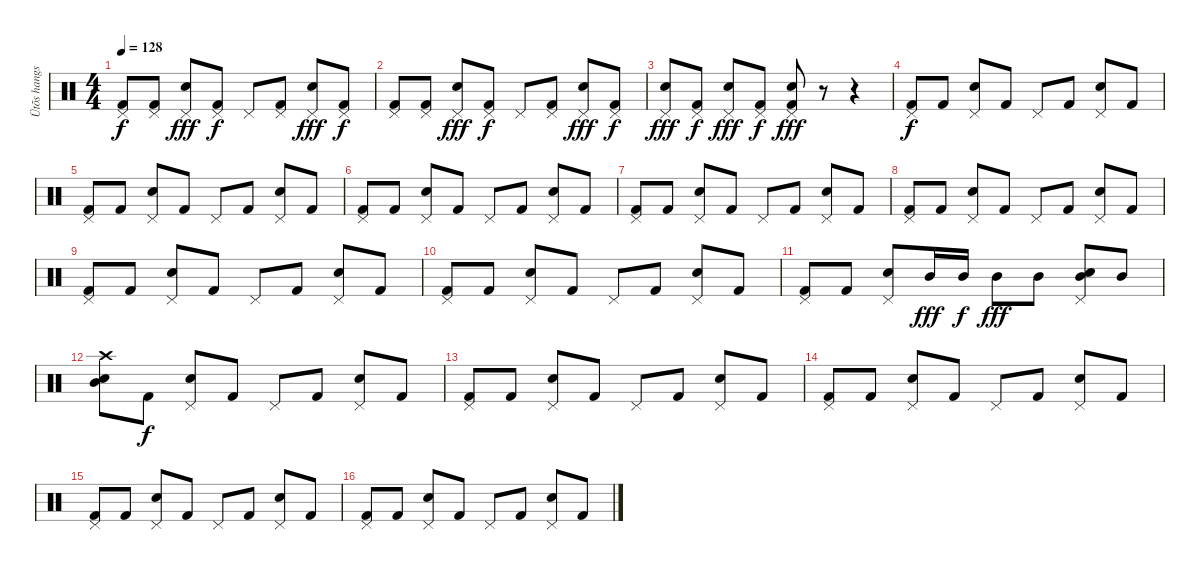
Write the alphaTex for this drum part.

\track ("Ütõs hangszer" "Ütõs hangs") {instrument percussion}
\staff {score}
\articulation defaults
\ts (4 4)
\tempo 128
\clef neutral
\ks c
("Kick (hit) 2" "Pedal Hi-Hat (hit)").8{dy f} ("Kick (hit) 2" "Pedal Hi-Hat (hit)").8 ("Electric Snare (hit)" "Pedal Hi-Hat (hit)").8{dy fff} ("Kick (hit) 2" "Pedal Hi-Hat (hit)").8{dy f} "Pedal Hi-Hat (hit)".8 ("Kick (hit) 2" "Pedal Hi-Hat (hit)").8 ("Electric Snare (hit)" "Pedal Hi-Hat (hit)").8{dy fff} ("Kick (hit) 2" "Pedal Hi-Hat (hit)").8{dy f} |
("Kick (hit) 2" "Pedal Hi-Hat (hit)").8 ("Kick (hit) 2" "Pedal Hi-Hat (hit)").8 ("Electric Snare (hit)" "Pedal Hi-Hat (hit)").8{dy fff} ("Kick (hit) 2" "Pedal Hi-Hat (hit)").8{dy f} "Pedal Hi-Hat (hit)".8 ("Kick (hit) 2" "Pedal Hi-Hat (hit)").8 ("Electric Snare (hit)" "Pedal Hi-Hat (hit)").8{dy fff} ("Kick (hit) 2" "Pedal Hi-Hat (hit)").8{dy f} |
("Electric Snare (hit)" "Pedal Hi-Hat (hit)").8{dy fff} ("Kick (hit) 2" "Pedal Hi-Hat (hit)").8{dy f} ("Electric Snare (hit)" "Pedal Hi-Hat (hit)").8{dy fff} ("Kick (hit) 2" "Pedal Hi-Hat (hit)").8{dy f} ("Electric Snare (hit)" "Kick (hit) 2" "Pedal Hi-Hat (hit)").8{dy fff} r.8 r.4 |
("Kick (hit) 2" "Pedal Hi-Hat (hit)").8{dy f} "Kick (hit) 2".8 ("Electric Snare (hit)" "Pedal Hi-Hat (hit)").8 "Kick (hit) 2".8 "Pedal Hi-Hat (hit)".8 "Kick (hit) 2".8 ("Electric Snare (hit)" "Pedal Hi-Hat (hit)").8 "Kick (hit) 2".8 |
("Kick (hit) 2" "Pedal Hi-Hat (hit)").8 "Kick (hit) 2".8 ("Electric Snare (hit)" "Pedal Hi-Hat (hit)").8 "Kick (hit) 2".8 "Pedal Hi-Hat (hit)".8 "Kick (hit) 2".8 ("Electric Snare (hit)" "Pedal Hi-Hat (hit)").8 "Kick (hit) 2".8 |
("Kick (hit) 2" "Pedal Hi-Hat (hit)").8 "Kick (hit) 2".8 ("Electric Snare (hit)" "Pedal Hi-Hat (hit)").8 "Kick (hit) 2".8 "Pedal Hi-Hat (hit)".8 "Kick (hit) 2".8 ("Electric Snare (hit)" "Pedal Hi-Hat (hit)").8 "Kick (hit) 2".8 |
("Kick (hit) 2" "Pedal Hi-Hat (hit)").8 "Kick (hit) 2".8 ("Electric Snare (hit)" "Pedal Hi-Hat (hit)").8 "Kick (hit) 2".8 "Pedal Hi-Hat (hit)".8 "Kick (hit) 2".8 ("Electric Snare (hit)" "Pedal Hi-Hat (hit)").8 "Kick (hit) 2".8 |
("Kick (hit) 2" "Pedal Hi-Hat (hit)").8 "Kick (hit) 2".8 ("Electric Snare (hit)" "Pedal Hi-Hat (hit)").8 "Kick (hit) 2".8 "Pedal Hi-Hat (hit)".8 "Kick (hit) 2".8 ("Electric Snare (hit)" "Pedal Hi-Hat (hit)").8 "Kick (hit) 2".8 |
("Kick (hit) 2" "Pedal Hi-Hat (hit)").8 "Kick (hit) 2".8 ("Electric Snare (hit)" "Pedal Hi-Hat (hit)").8 "Kick (hit) 2".8 "Pedal Hi-Hat (hit)".8 "Kick (hit) 2".8 ("Electric Snare (hit)" "Pedal Hi-Hat (hit)").8 "Kick (hit) 2".8 |
("Kick (hit) 2" "Pedal Hi-Hat (hit)").8 "Kick (hit) 2".8 ("Electric Snare (hit)" "Pedal Hi-Hat (hit)").8 "Kick (hit) 2".8 "Pedal Hi-Hat (hit)".8 "Kick (hit) 2".8 ("Electric Snare (hit)" "Pedal Hi-Hat (hit)").8 "Kick (hit) 2".8 |
("Kick (hit) 2" "Pedal Hi-Hat (hit)").8 "Kick (hit) 2".8 ("Electric Snare (hit)" "Pedal Hi-Hat (hit)").8 "Mid Tom (hit)".16{dy fff} "Mid Tom (hit)".16{dy f} "Mid Tom (hit)".8{dy fff} "Mid Tom (hit)".8 ("Electric Snare (hit)" "Mid Tom (hit)" "Pedal Hi-Hat (hit)").8 "Mid Tom (hit)".8 |
("Electric Snare (hit)" "Mid Tom (hit)" "Crash high (hit)").8 "Kick (hit) 2".8{dy f} ("Electric Snare (hit)" "Pedal Hi-Hat (hit)").8 "Kick (hit) 2".8 "Pedal Hi-Hat (hit)".8 "Kick (hit) 2".8 ("Electric Snare (hit)" "Pedal Hi-Hat (hit)").8 "Kick (hit) 2".8 |
("Kick (hit) 2" "Pedal Hi-Hat (hit)").8 "Kick (hit) 2".8 ("Electric Snare (hit)" "Pedal Hi-Hat (hit)").8 "Kick (hit) 2".8 "Pedal Hi-Hat (hit)".8 "Kick (hit) 2".8 ("Electric Snare (hit)" "Pedal Hi-Hat (hit)").8 "Kick (hit) 2".8 |
("Kick (hit) 2" "Pedal Hi-Hat (hit)").8 "Kick (hit) 2".8 ("Electric Snare (hit)" "Pedal Hi-Hat (hit)").8 "Kick (hit) 2".8 "Pedal Hi-Hat (hit)".8 "Kick (hit) 2".8 ("Electric Snare (hit)" "Pedal Hi-Hat (hit)").8 "Kick (hit) 2".8 |
("Kick (hit) 2" "Pedal Hi-Hat (hit)").8 "Kick (hit) 2".8 ("Electric Snare (hit)" "Pedal Hi-Hat (hit)").8 "Kick (hit) 2".8 "Pedal Hi-Hat (hit)".8 "Kick (hit) 2".8 ("Electric Snare (hit)" "Pedal Hi-Hat (hit)").8 "Kick (hit) 2".8 |
("Kick (hit) 2" "Pedal Hi-Hat (hit)").8 "Kick (hit) 2".8 ("Electric Snare (hit)" "Pedal Hi-Hat (hit)").8 "Kick (hit) 2".8 "Pedal Hi-Hat (hit)".8 "Kick (hit) 2".8 ("Electric Snare (hit)" "Pedal Hi-Hat (hit)").8 "Kick (hit) 2".8
